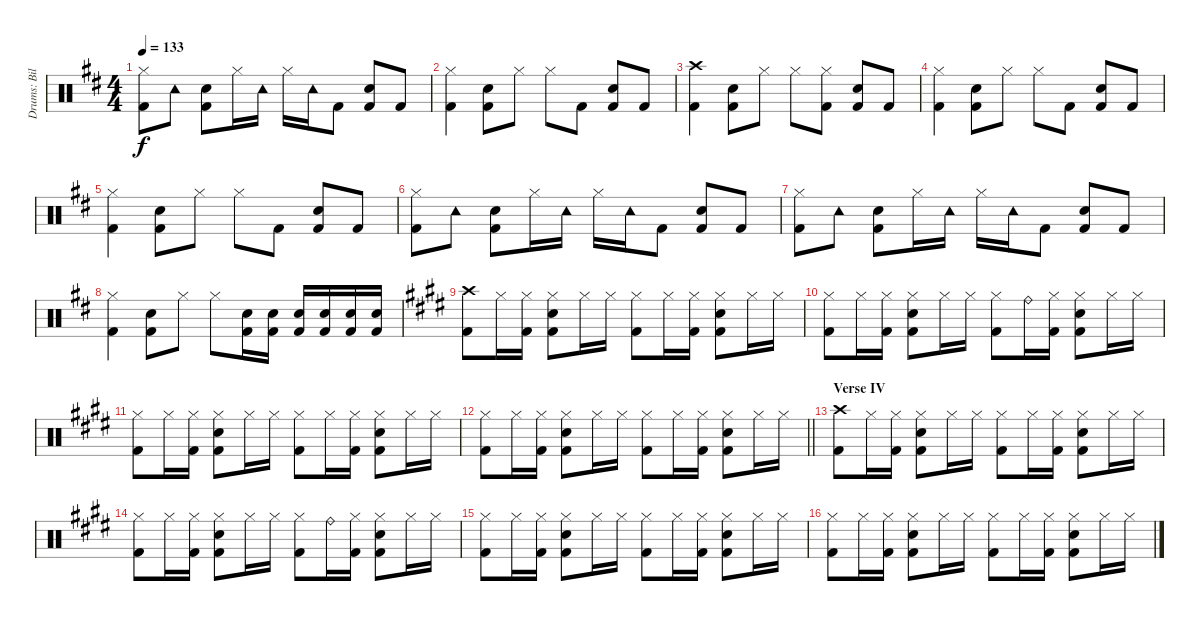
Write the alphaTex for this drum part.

\track ("Drums: Bill" "Drums: Bil") {instrument percussion}
\staff {score}
\articulation defaults
\ts (4 4)
\tempo 133
\clef neutral
\ks d
("Hi-Hat (closed)" "Kick (hit) 2").8{dy f} "Tambourine (hit)".8 ("Snare (hit) 2" "Kick (hit) 2").8 "Hi-Hat (closed)".16 "Tambourine (hit)".16 "Hi-Hat (closed)".16 "Tambourine (hit)".16 "Kick (hit) 2".8 ("Snare (hit) 2" "Kick (hit) 2").8 "Kick (hit) 2".8 |
("Hi-Hat (closed)" "Kick (hit) 2").4 ("Snare (hit) 2" "Kick (hit) 2").8 "Hi-Hat (closed)".8 "Hi-Hat (closed)".8 "Kick (hit) 2".8 ("Snare (hit) 2" "Kick (hit) 2").8 "Kick (hit) 2".8 |
("Crash high (hit)" "Kick (hit) 2").4 ("Snare (hit) 2" "Kick (hit) 2").8 "Hi-Hat (closed)".8 "Hi-Hat (closed)".8 ("Hi-Hat (closed)" "Kick (hit) 2").8 ("Snare (hit) 2" "Kick (hit) 2").8 "Kick (hit) 2".8 |
("Hi-Hat (closed)" "Kick (hit) 2").4 ("Snare (hit) 2" "Kick (hit) 2").8 "Hi-Hat (closed)".8 "Hi-Hat (closed)".8 "Kick (hit) 2".8 ("Snare (hit) 2" "Kick (hit) 2").8 "Kick (hit) 2".8 |
("Hi-Hat (closed)" "Kick (hit) 2").4 ("Snare (hit) 2" "Kick (hit) 2").8 "Hi-Hat (closed)".8 "Hi-Hat (closed)".8 "Kick (hit) 2".8 ("Snare (hit) 2" "Kick (hit) 2").8 "Kick (hit) 2".8 |
("Hi-Hat (closed)" "Kick (hit) 2").8 "Tambourine (hit)".8 ("Snare (hit) 2" "Kick (hit) 2").8 "Hi-Hat (closed)".16 "Tambourine (hit)".16 "Hi-Hat (closed)".16 "Tambourine (hit)".16 "Kick (hit) 2".8 ("Snare (hit) 2" "Kick (hit) 2").8 "Kick (hit) 2".8 |
("Hi-Hat (closed)" "Kick (hit) 2").8 "Tambourine (hit)".8 ("Snare (hit) 2" "Kick (hit) 2").8 "Hi-Hat (closed)".16 "Tambourine (hit)".16 "Hi-Hat (closed)".16 "Tambourine (hit)".16 "Kick (hit) 2".8 ("Snare (hit) 2" "Kick (hit) 2").8 "Kick (hit) 2".8 |
("Hi-Hat (closed)" "Kick (hit) 2").4 ("Snare (hit) 2" "Kick (hit) 2").8 "Hi-Hat (closed)".8 "Hi-Hat (closed)".8 ("Snare (hit) 2" "Kick (hit) 2").16 ("Snare (hit) 2" "Kick (hit) 2").16 ("Snare (hit) 2" "Kick (hit) 2").16 ("Snare (hit) 2" "Kick (hit) 2").16 ("Snare (hit) 2" "Kick (hit) 2").16 ("Snare (hit) 2" "Kick (hit) 2").16 |
\ks e
("Crash high (hit)" "Kick (hit) 2").8 "Hi-Hat (closed)".16 ("Hi-Hat (closed)" "Kick (hit) 2").16 ("Hi-Hat (closed)" "Snare (hit) 2" "Kick (hit) 2").8 "Hi-Hat (closed)".16 "Hi-Hat (closed)".16 ("Hi-Hat (closed)" "Kick (hit) 2").8 "Hi-Hat (closed)".16 ("Hi-Hat (closed)" "Kick (hit) 2").16 ("Hi-Hat (closed)" "Snare (hit) 2" "Kick (hit) 2").8 "Hi-Hat (closed)".16 "Hi-Hat (closed)".16 |
("Hi-Hat (closed)" "Kick (hit) 2").8 "Hi-Hat (closed)".16 ("Hi-Hat (closed)" "Kick (hit) 2").16 ("Hi-Hat (closed)" "Snare (hit) 2" "Kick (hit) 2").8 "Hi-Hat (closed)".16 "Hi-Hat (closed)".16 ("Hi-Hat (closed)" "Kick (hit) 2").8 "Ride (bell)".16 ("Hi-Hat (closed)" "Kick (hit) 2").16 ("Hi-Hat (closed)" "Snare (hit) 2" "Kick (hit) 2").8 "Hi-Hat (closed)".16 "Hi-Hat (closed)".16 |
("Hi-Hat (closed)" "Kick (hit) 2").8 "Hi-Hat (closed)".16 ("Hi-Hat (closed)" "Kick (hit) 2").16 ("Hi-Hat (closed)" "Snare (hit) 2" "Kick (hit) 2").8 "Hi-Hat (closed)".16 "Hi-Hat (closed)".16 ("Hi-Hat (closed)" "Kick (hit) 2").8 "Hi-Hat (closed)".16 ("Hi-Hat (closed)" "Kick (hit) 2").16 ("Hi-Hat (closed)" "Snare (hit) 2" "Kick (hit) 2").8 "Hi-Hat (closed)".16 "Hi-Hat (closed)".16 |
\barLineRight lightlight
("Hi-Hat (closed)" "Kick (hit) 2").8 "Hi-Hat (closed)".16 ("Hi-Hat (closed)" "Kick (hit) 2").16 ("Hi-Hat (closed)" "Snare (hit) 2" "Kick (hit) 2").8 "Hi-Hat (closed)".16 "Hi-Hat (closed)".16 ("Hi-Hat (closed)" "Kick (hit) 2").8 "Hi-Hat (closed)".16 ("Hi-Hat (closed)" "Kick (hit) 2").16 ("Hi-Hat (closed)" "Snare (hit) 2" "Kick (hit) 2").8 "Hi-Hat (closed)".16 "Hi-Hat (closed)".16 |
\section ("" "Verse IV")
("Crash high (hit)" "Kick (hit) 2").8 "Hi-Hat (closed)".16 ("Hi-Hat (closed)" "Kick (hit) 2").16 ("Hi-Hat (closed)" "Snare (hit) 2" "Kick (hit) 2").8 "Hi-Hat (closed)".16 "Hi-Hat (closed)".16 ("Hi-Hat (closed)" "Kick (hit) 2").8 "Hi-Hat (closed)".16 ("Hi-Hat (closed)" "Kick (hit) 2").16 ("Hi-Hat (closed)" "Snare (hit) 2" "Kick (hit) 2").8 "Hi-Hat (closed)".16 "Hi-Hat (closed)".16 |
("Hi-Hat (closed)" "Kick (hit) 2").8 "Hi-Hat (closed)".16 ("Hi-Hat (closed)" "Kick (hit) 2").16 ("Hi-Hat (closed)" "Snare (hit) 2" "Kick (hit) 2").8 "Hi-Hat (closed)".16 "Hi-Hat (closed)".16 ("Hi-Hat (closed)" "Kick (hit) 2").8 "Ride (bell)".16 ("Hi-Hat (closed)" "Kick (hit) 2").16 ("Hi-Hat (closed)" "Snare (hit) 2" "Kick (hit) 2").8 "Hi-Hat (closed)".16 "Hi-Hat (closed)".16 |
("Hi-Hat (closed)" "Kick (hit) 2").8 "Hi-Hat (closed)".16 ("Hi-Hat (closed)" "Kick (hit) 2").16 ("Hi-Hat (closed)" "Snare (hit) 2" "Kick (hit) 2").8 "Hi-Hat (closed)".16 "Hi-Hat (closed)".16 ("Hi-Hat (closed)" "Kick (hit) 2").8 "Hi-Hat (closed)".16 ("Hi-Hat (closed)" "Kick (hit) 2").16 ("Hi-Hat (closed)" "Snare (hit) 2" "Kick (hit) 2").8 "Hi-Hat (closed)".16 "Hi-Hat (closed)".16 |
("Hi-Hat (closed)" "Kick (hit) 2").8 "Hi-Hat (closed)".16 ("Hi-Hat (closed)" "Kick (hit) 2").16 ("Hi-Hat (closed)" "Snare (hit) 2" "Kick (hit) 2").8 "Hi-Hat (closed)".16 "Hi-Hat (closed)".16 ("Hi-Hat (closed)" "Kick (hit) 2").8 "Hi-Hat (closed)".16 ("Hi-Hat (closed)" "Kick (hit) 2").16 ("Hi-Hat (closed)" "Snare (hit) 2" "Kick (hit) 2").8 "Hi-Hat (closed)".16 "Hi-Hat (closed)".16
